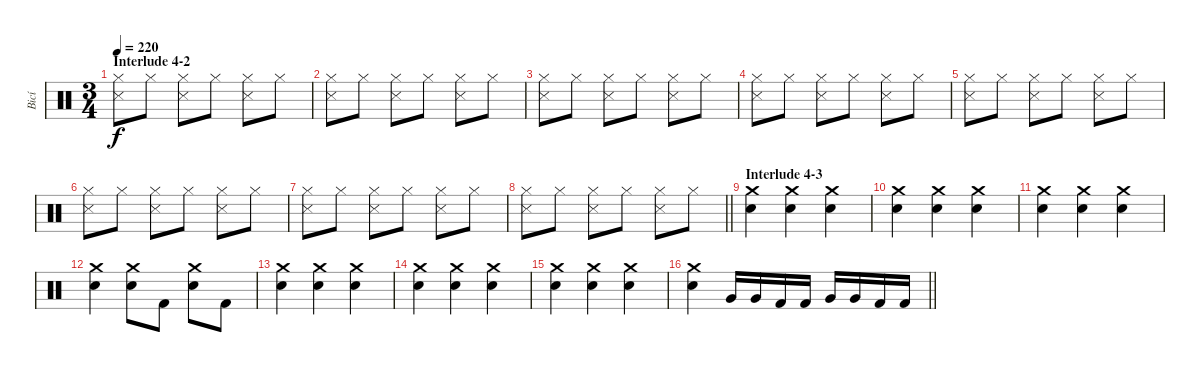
\track ("Bicí" "Bicí") {instrument percussion}
\staff {score}
\articulation defaults
\ts (3 4)
\section ("" "Interlude 4-2 ")
\tempo 220
\clef neutral
\ks c
("Hi-Hat (closed)" "Snare (side stick) 3").8{dy f} "Hi-Hat (closed)".8 ("Hi-Hat (closed)" "Snare (side stick) 3").8 "Hi-Hat (closed)".8 ("Hi-Hat (closed)" "Snare (side stick) 3").8 "Hi-Hat (closed)".8 |
("Hi-Hat (closed)" "Snare (side stick) 3").8 "Hi-Hat (closed)".8 ("Hi-Hat (closed)" "Snare (side stick) 3").8 "Hi-Hat (closed)".8 ("Hi-Hat (closed)" "Snare (side stick) 3").8 "Hi-Hat (closed)".8 |
("Hi-Hat (closed)" "Snare (side stick) 3").8 "Hi-Hat (closed)".8 ("Hi-Hat (closed)" "Snare (side stick) 3").8 "Hi-Hat (closed)".8 ("Hi-Hat (closed)" "Snare (side stick) 3").8 "Hi-Hat (closed)".8 |
("Hi-Hat (closed)" "Snare (side stick) 3").8 "Hi-Hat (closed)".8 ("Hi-Hat (closed)" "Snare (side stick) 3").8 "Hi-Hat (closed)".8 ("Hi-Hat (closed)" "Snare (side stick) 3").8 "Hi-Hat (closed)".8 |
("Hi-Hat (closed)" "Snare (side stick) 3").8 "Hi-Hat (closed)".8 ("Hi-Hat (closed)" "Snare (side stick) 3").8 "Hi-Hat (closed)".8 ("Hi-Hat (closed)" "Snare (side stick) 3").8 "Hi-Hat (closed)".8 |
("Hi-Hat (closed)" "Snare (side stick) 3").8 "Hi-Hat (closed)".8 ("Hi-Hat (closed)" "Snare (side stick) 3").8 "Hi-Hat (closed)".8 ("Hi-Hat (closed)" "Snare (side stick) 3").8 "Hi-Hat (closed)".8 |
("Hi-Hat (closed)" "Snare (side stick) 3").8 "Hi-Hat (closed)".8 ("Hi-Hat (closed)" "Snare (side stick) 3").8 "Hi-Hat (closed)".8 ("Hi-Hat (closed)" "Snare (side stick) 3").8 "Hi-Hat (closed)".8 |
\barLineRight lightlight
("Hi-Hat (closed)" "Snare (side stick) 3").8 "Hi-Hat (closed)".8 ("Hi-Hat (closed)" "Snare (side stick) 3").8 "Hi-Hat (closed)".8 ("Hi-Hat (closed)" "Snare (side stick) 3").8 "Hi-Hat (closed)".8 |
\section ("" "Interlude 4-3")
("Crash medium (hit)" "Electric Snare (hit)").4 ("Crash medium (hit)" "Electric Snare (hit)").4 ("Crash medium (hit)" "Electric Snare (hit)").4 |
("Crash medium (hit)" "Electric Snare (hit)").4 ("Crash medium (hit)" "Electric Snare (hit)").4 ("Crash medium (hit)" "Electric Snare (hit)").4 |
("Crash medium (hit)" "Electric Snare (hit)").4 ("Crash medium (hit)" "Electric Snare (hit)").4 ("Crash medium (hit)" "Electric Snare (hit)").4 |
("Crash medium (hit)" "Electric Snare (hit)").4 ("Crash medium (hit)" "Electric Snare (hit)").8 "Kick (hit) 2".8 ("Crash medium (hit)" "Electric Snare (hit)").8 "Kick (hit) 2".8 |
("Crash medium (hit)" "Electric Snare (hit)").4 ("Crash medium (hit)" "Electric Snare (hit)").4 ("Crash medium (hit)" "Electric Snare (hit)").4 |
("Crash medium (hit)" "Electric Snare (hit)").4 ("Crash medium (hit)" "Electric Snare (hit)").4 ("Crash medium (hit)" "Electric Snare (hit)").4 |
("Crash medium (hit)" "Electric Snare (hit)").4 ("Crash medium (hit)" "Electric Snare (hit)").4 ("Crash medium (hit)" "Electric Snare (hit)").4 |
\barLineRight lightlight
("Crash medium (hit)" "Electric Snare (hit)").4 "Very Low Tom (hit)".16 "Very Low Tom (hit)".16 "Kick (hit) 2".16 "Kick (hit) 2".16 "Very Low Tom (hit)".16 "Very Low Tom (hit)".16 "Kick (hit) 2".16 "Kick (hit) 2".16
